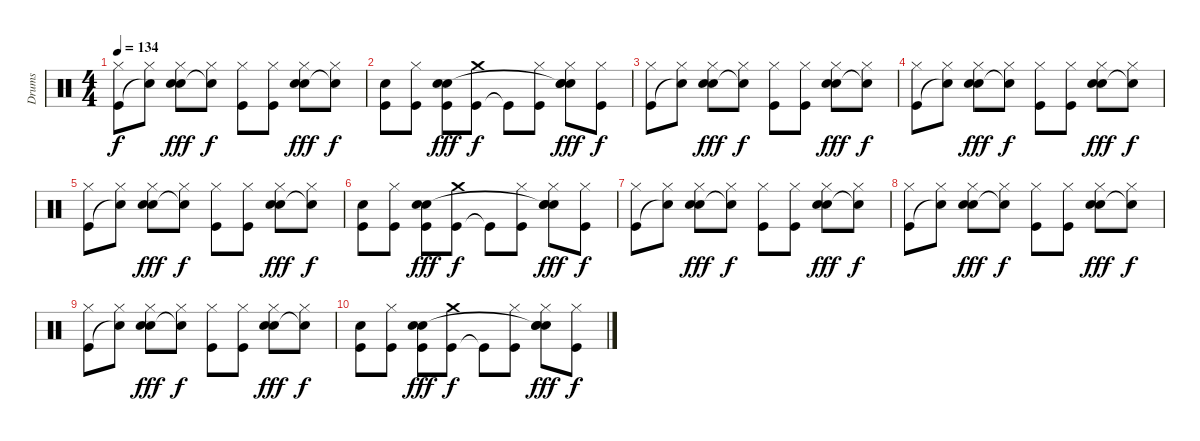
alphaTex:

\track ("Drums" "Drums") {instrument percussion}
\staff {score}
\articulation defaults
\ts (4 4)
\tempo 134
\clef neutral
\ks c
("Kick (hit)" "Hi-Hat (closed)").8{dy f} ("Snare (hit)"{t} "Hi-Hat (closed)").8 ("Snare (hit) 2" "Hi-Hat (closed)" "Hand Clap (hit)").8{dy fff} ("Snare (hit)"{t} "Hi-Hat (closed)").8{dy f} ("Kick (hit)" "Hi-Hat (closed)").8 ("Kick (hit)" "Hi-Hat (closed)").8 ("Snare (hit) 2" "Hi-Hat (closed)" "Hand Clap (hit)").8{dy fff} ("Snare (hit)"{t} "Hi-Hat (closed)").8{dy f} |
("Kick (hit)" "Snare (hit) 2").8 ("Kick (hit)" "Hi-Hat (closed)").8 ("Kick (hit)" "Snare (hit) 2" "Hand Clap (hit)").8{dy fff} ("Kick (hit)" "Crash medium (hit)").8{dy f} "Kick (hit)"{t}.8 ("Kick (hit)" "Hi-Hat (closed)").8 ("Snare (hit) 2" "Hi-Hat (closed)" "Snare (hit)"{t} "Hand Clap (hit)").8{dy fff} ("Kick (hit)" "Hi-Hat (closed)").8{dy f} |
("Kick (hit)" "Hi-Hat (closed)").8{volume 8} ("Snare (hit)"{t} "Hi-Hat (closed)").8 ("Snare (hit) 2" "Hi-Hat (closed)" "Hand Clap (hit)").8{dy fff} ("Snare (hit)"{t} "Hi-Hat (closed)").8{dy f} ("Kick (hit)" "Hi-Hat (closed)").8 ("Kick (hit)" "Hi-Hat (closed)").8 ("Snare (hit) 2" "Hi-Hat (closed)" "Hand Clap (hit)").8{dy fff} ("Snare (hit)"{t} "Hi-Hat (closed)").8{dy f} |
("Kick (hit)" "Hi-Hat (closed)").8 ("Snare (hit)"{t} "Hi-Hat (closed)").8 ("Snare (hit) 2" "Hi-Hat (closed)" "Hand Clap (hit)").8{dy fff} ("Snare (hit)"{t} "Hi-Hat (closed)").8{dy f} ("Kick (hit)" "Hi-Hat (closed)").8 ("Kick (hit)" "Hi-Hat (closed)").8 ("Snare (hit) 2" "Hi-Hat (closed)" "Hand Clap (hit)").8{dy fff} ("Snare (hit)"{t} "Hi-Hat (closed)").8{dy f} |
("Kick (hit)" "Hi-Hat (closed)").8 ("Snare (hit)"{t} "Hi-Hat (closed)").8 ("Snare (hit) 2" "Hi-Hat (closed)" "Hand Clap (hit)").8{dy fff} ("Snare (hit)"{t} "Hi-Hat (closed)").8{dy f} ("Kick (hit)" "Hi-Hat (closed)").8 ("Kick (hit)" "Hi-Hat (closed)").8 ("Snare (hit) 2" "Hi-Hat (closed)" "Hand Clap (hit)").8{dy fff} ("Snare (hit)"{t} "Hi-Hat (closed)").8{dy f} |
("Kick (hit)" "Snare (hit) 2").8 ("Kick (hit)" "Hi-Hat (closed)").8 ("Kick (hit)" "Snare (hit) 2" "Hand Clap (hit)").8{dy fff} ("Kick (hit)" "Crash medium (hit)").8{dy f} "Kick (hit)"{t}.8 ("Kick (hit)" "Hi-Hat (closed)").8 ("Snare (hit) 2" "Hi-Hat (closed)" "Snare (hit)"{t} "Hand Clap (hit)").8{dy fff} ("Kick (hit)" "Hi-Hat (closed)").8{dy f} |
("Kick (hit)" "Hi-Hat (closed)").8{volume 4} ("Snare (hit)"{t} "Hi-Hat (closed)").8 ("Snare (hit) 2" "Hi-Hat (closed)" "Hand Clap (hit)").8{dy fff} ("Snare (hit)"{t} "Hi-Hat (closed)").8{dy f} ("Kick (hit)" "Hi-Hat (closed)").8 ("Kick (hit)" "Hi-Hat (closed)").8 ("Snare (hit) 2" "Hi-Hat (closed)" "Hand Clap (hit)").8{dy fff} ("Snare (hit)"{t} "Hi-Hat (closed)").8{dy f} |
("Kick (hit)" "Hi-Hat (closed)").8 ("Snare (hit)"{t} "Hi-Hat (closed)").8 ("Snare (hit) 2" "Hi-Hat (closed)" "Hand Clap (hit)").8{dy fff} ("Snare (hit)"{t} "Hi-Hat (closed)").8{dy f} ("Kick (hit)" "Hi-Hat (closed)").8 ("Kick (hit)" "Hi-Hat (closed)").8 ("Snare (hit) 2" "Hi-Hat (closed)" "Hand Clap (hit)").8{dy fff} ("Snare (hit)"{t} "Hi-Hat (closed)").8{dy f} |
("Kick (hit)" "Hi-Hat (closed)").8 ("Snare (hit)"{t} "Hi-Hat (closed)").8 ("Snare (hit) 2" "Hi-Hat (closed)" "Hand Clap (hit)").8{dy fff} ("Snare (hit)"{t} "Hi-Hat (closed)").8{dy f} ("Kick (hit)" "Hi-Hat (closed)").8 ("Kick (hit)" "Hi-Hat (closed)").8 ("Snare (hit) 2" "Hi-Hat (closed)" "Hand Clap (hit)").8{dy fff} ("Snare (hit)"{t} "Hi-Hat (closed)").8{dy f} |
("Kick (hit)" "Snare (hit) 2").8 ("Kick (hit)" "Hi-Hat (closed)").8 ("Kick (hit)" "Snare (hit) 2" "Hand Clap (hit)").8{dy fff} ("Kick (hit)" "Crash medium (hit)").8{dy f} "Kick (hit)"{t}.8 ("Kick (hit)" "Hi-Hat (closed)").8 ("Snare (hit) 2" "Hi-Hat (closed)" "Snare (hit)"{t} "Hand Clap (hit)").8{dy fff} ("Kick (hit)" "Hi-Hat (closed)").8{dy f}
